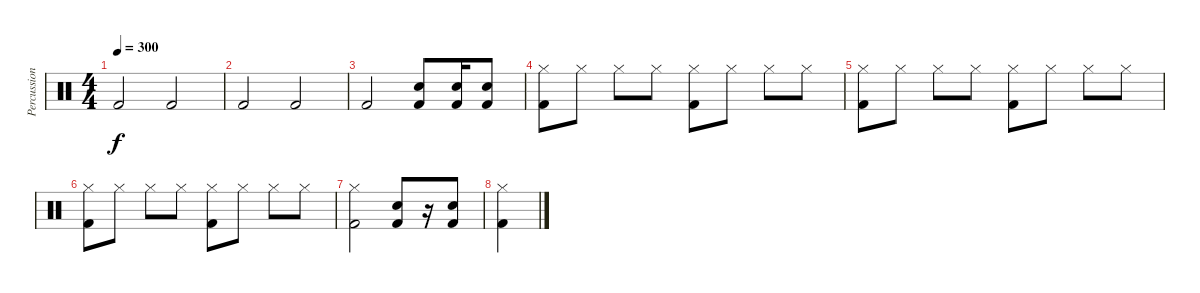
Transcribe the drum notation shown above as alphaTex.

\track ("Percussion" "Percussion") {instrument percussion}
\staff {score}
\articulation defaults
\ts (4 4)
\tempo 300
\clef neutral
\ks c "Kick (hit) 2".2{dy f} "Kick (hit) 2".2
|
"Kick (hit) 2".2 "Kick (hit) 2".2 |
"Kick (hit) 2".2 ("Kick (hit) 2" "Snare (hit) 2").8 ("Kick (hit) 2" "Snare (hit) 2").16 ("Kick (hit) 2" "Snare (hit) 2").8 |
("Hi-Hat (closed)" "Kick (hit) 2").8 "Hi-Hat (closed)".8 "Hi-Hat (closed)".8 "Hi-Hat (closed)".8 ("Hi-Hat (closed)" "Kick (hit) 2").8 "Hi-Hat (closed)".8 "Hi-Hat (closed)".8 "Hi-Hat (closed)".8 |
("Hi-Hat (closed)" "Kick (hit) 2").8 "Hi-Hat (closed)".8 "Hi-Hat (closed)".8 "Hi-Hat (closed)".8 ("Hi-Hat (closed)" "Kick (hit) 2").8 "Hi-Hat (closed)".8 "Hi-Hat (closed)".8 "Hi-Hat (closed)".8 |
("Hi-Hat (closed)" "Kick (hit) 2").8 "Hi-Hat (closed)".8 "Hi-Hat (closed)".8 "Hi-Hat (closed)".8 ("Hi-Hat (closed)" "Kick (hit) 2").8 "Hi-Hat (closed)".8 "Hi-Hat (closed)".8 "Hi-Hat (closed)".8 |
("Hi-Hat (closed)" "Kick (hit) 2").2 ("Kick (hit) 2" "Snare (hit) 2").8 r.16 ("Kick (hit) 2" "Snare (hit) 2").8 |
("Kick (hit) 2" "Hi-Hat (closed)").4
